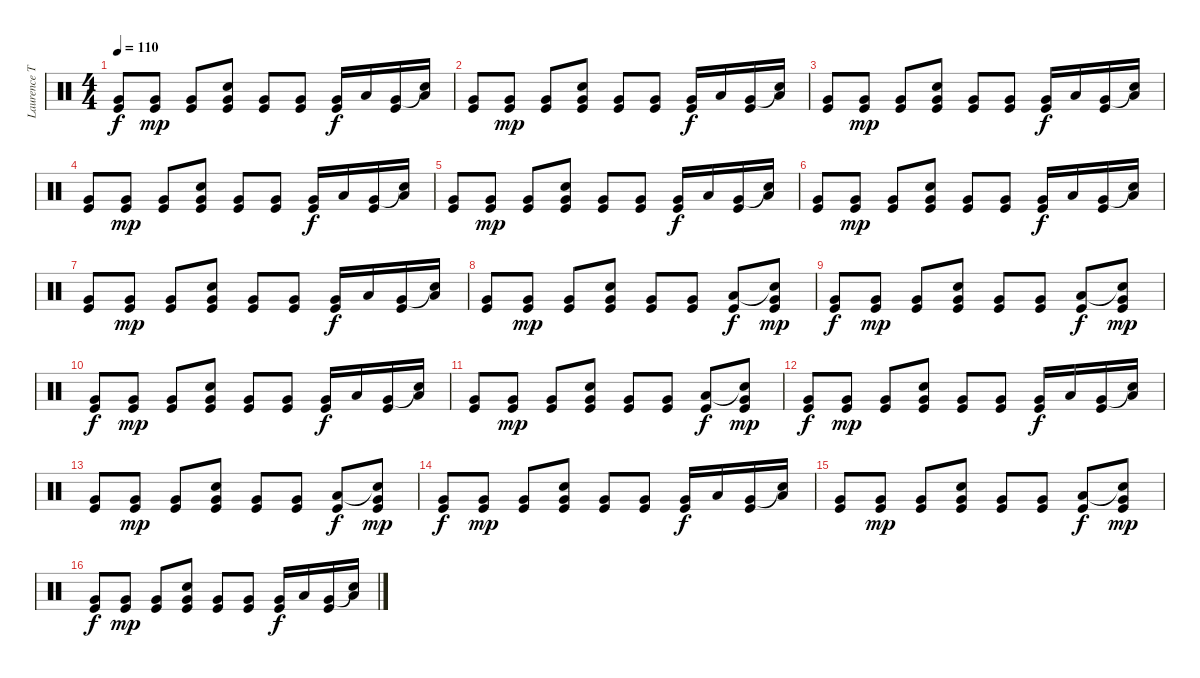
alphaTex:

\track ("Laurence Tolhurst (drums)" "Laurence T") {instrument percussion}
\staff {score}
\articulation defaults
\ts (4 4)
\tempo 110
\clef neutral
\ks c
("Very Low Tom (hit)" "Kick (hit)").8{dy f} ("Very Low Tom (hit)" "Kick (hit)").8{dy mp} ("Very Low Tom (hit)" "Kick (hit)").8 ("Snare (hit) 2" "Very Low Tom (hit)" "Kick (hit)").8 ("Very Low Tom (hit)" "Kick (hit)").8 ("Very Low Tom (hit)" "Kick (hit)").8 ("Very Low Tom (hit)" "Kick (hit)").16{dy f} "Low Tom (hit)".16 ("Very Low Tom (hit)" "Kick (hit)").16 ("Snare (hit)"{t} "Low Tom (hit)").16 |
("Very Low Tom (hit)" "Kick (hit)").8 ("Very Low Tom (hit)" "Kick (hit)").8{dy mp} ("Very Low Tom (hit)" "Kick (hit)").8 ("Snare (hit) 2" "Very Low Tom (hit)" "Kick (hit)").8 ("Very Low Tom (hit)" "Kick (hit)").8 ("Very Low Tom (hit)" "Kick (hit)").8 ("Very Low Tom (hit)" "Kick (hit)").16{dy f} "Low Tom (hit)".16 ("Very Low Tom (hit)" "Kick (hit)").16 ("Snare (hit)"{t} "Low Tom (hit)").16 |
("Very Low Tom (hit)" "Kick (hit)").8 ("Very Low Tom (hit)" "Kick (hit)").8{dy mp} ("Very Low Tom (hit)" "Kick (hit)").8 ("Snare (hit) 2" "Very Low Tom (hit)" "Kick (hit)").8 ("Very Low Tom (hit)" "Kick (hit)").8 ("Very Low Tom (hit)" "Kick (hit)").8 ("Very Low Tom (hit)" "Kick (hit)").16{dy f} "Low Tom (hit)".16 ("Very Low Tom (hit)" "Kick (hit)").16 ("Snare (hit)"{t} "Low Tom (hit)").16 |
("Very Low Tom (hit)" "Kick (hit)").8 ("Very Low Tom (hit)" "Kick (hit)").8{dy mp} ("Very Low Tom (hit)" "Kick (hit)").8 ("Snare (hit) 2" "Very Low Tom (hit)" "Kick (hit)").8 ("Very Low Tom (hit)" "Kick (hit)").8 ("Very Low Tom (hit)" "Kick (hit)").8 ("Very Low Tom (hit)" "Kick (hit)").16{dy f} "Low Tom (hit)".16 ("Very Low Tom (hit)" "Kick (hit)").16 ("Snare (hit)"{t} "Low Tom (hit)").16 |
("Very Low Tom (hit)" "Kick (hit)").8 ("Very Low Tom (hit)" "Kick (hit)").8{dy mp} ("Very Low Tom (hit)" "Kick (hit)").8 ("Snare (hit) 2" "Very Low Tom (hit)" "Kick (hit)").8 ("Very Low Tom (hit)" "Kick (hit)").8 ("Very Low Tom (hit)" "Kick (hit)").8 ("Very Low Tom (hit)" "Kick (hit)").16{dy f} "Low Tom (hit)".16 ("Very Low Tom (hit)" "Kick (hit)").16 ("Snare (hit)"{t} "Low Tom (hit)").16 |
("Very Low Tom (hit)" "Kick (hit)").8 ("Very Low Tom (hit)" "Kick (hit)").8{dy mp} ("Very Low Tom (hit)" "Kick (hit)").8 ("Snare (hit) 2" "Very Low Tom (hit)" "Kick (hit)").8 ("Very Low Tom (hit)" "Kick (hit)").8 ("Very Low Tom (hit)" "Kick (hit)").8 ("Very Low Tom (hit)" "Kick (hit)").16{dy f} "Low Tom (hit)".16 ("Very Low Tom (hit)" "Kick (hit)").16 ("Snare (hit)"{t} "Low Tom (hit)").16 |
("Very Low Tom (hit)" "Kick (hit)").8 ("Very Low Tom (hit)" "Kick (hit)").8{dy mp} ("Very Low Tom (hit)" "Kick (hit)").8 ("Snare (hit) 2" "Very Low Tom (hit)" "Kick (hit)").8 ("Very Low Tom (hit)" "Kick (hit)").8 ("Very Low Tom (hit)" "Kick (hit)").8 ("Very Low Tom (hit)" "Kick (hit)").16{dy f} "Low Tom (hit)".16 ("Very Low Tom (hit)" "Kick (hit)").16 ("Snare (hit)"{t} "Low Tom (hit)").16 |
("Very Low Tom (hit)" "Kick (hit)").8 ("Very Low Tom (hit)" "Kick (hit)").8{dy mp} ("Very Low Tom (hit)" "Kick (hit)").8 ("Snare (hit) 2" "Very Low Tom (hit)" "Kick (hit)").8 ("Very Low Tom (hit)" "Kick (hit)").8 ("Very Low Tom (hit)" "Kick (hit)").8 ("Low Tom (hit)" "Kick (hit)").8{dy f} ("Snare (hit)"{t} "Very Low Tom (hit)" "Kick (hit)").8{dy mp} |
("Very Low Tom (hit)" "Kick (hit)").8{dy f} ("Very Low Tom (hit)" "Kick (hit)").8{dy mp} ("Very Low Tom (hit)" "Kick (hit)").8 ("Snare (hit) 2" "Very Low Tom (hit)" "Kick (hit)").8 ("Very Low Tom (hit)" "Kick (hit)").8 ("Very Low Tom (hit)" "Kick (hit)").8 ("Low Tom (hit)" "Kick (hit)").8{dy f} ("Snare (hit)"{t} "Very Low Tom (hit)" "Kick (hit)").8{dy mp} |
("Very Low Tom (hit)" "Kick (hit)").8{dy f} ("Very Low Tom (hit)" "Kick (hit)").8{dy mp} ("Very Low Tom (hit)" "Kick (hit)").8 ("Snare (hit) 2" "Very Low Tom (hit)" "Kick (hit)").8 ("Very Low Tom (hit)" "Kick (hit)").8 ("Very Low Tom (hit)" "Kick (hit)").8 ("Very Low Tom (hit)" "Kick (hit)").16{dy f} "Low Tom (hit)".16 ("Very Low Tom (hit)" "Kick (hit)").16 ("Snare (hit)"{t} "Low Tom (hit)").16 |
("Very Low Tom (hit)" "Kick (hit)").8 ("Very Low Tom (hit)" "Kick (hit)").8{dy mp} ("Very Low Tom (hit)" "Kick (hit)").8 ("Snare (hit) 2" "Very Low Tom (hit)" "Kick (hit)").8 ("Very Low Tom (hit)" "Kick (hit)").8 ("Very Low Tom (hit)" "Kick (hit)").8 ("Low Tom (hit)" "Kick (hit)").8{dy f} ("Snare (hit)"{t} "Very Low Tom (hit)" "Kick (hit)").8{dy mp} |
("Very Low Tom (hit)" "Kick (hit)").8{dy f} ("Very Low Tom (hit)" "Kick (hit)").8{dy mp} ("Very Low Tom (hit)" "Kick (hit)").8 ("Snare (hit) 2" "Very Low Tom (hit)" "Kick (hit)").8 ("Very Low Tom (hit)" "Kick (hit)").8 ("Very Low Tom (hit)" "Kick (hit)").8 ("Very Low Tom (hit)" "Kick (hit)").16{dy f} "Low Tom (hit)".16 ("Very Low Tom (hit)" "Kick (hit)").16 ("Snare (hit)"{t} "Low Tom (hit)").16 |
("Very Low Tom (hit)" "Kick (hit)").8 ("Very Low Tom (hit)" "Kick (hit)").8{dy mp} ("Very Low Tom (hit)" "Kick (hit)").8 ("Snare (hit) 2" "Very Low Tom (hit)" "Kick (hit)").8 ("Very Low Tom (hit)" "Kick (hit)").8 ("Very Low Tom (hit)" "Kick (hit)").8 ("Low Tom (hit)" "Kick (hit)").8{dy f} ("Snare (hit)"{t} "Very Low Tom (hit)" "Kick (hit)").8{dy mp} |
("Very Low Tom (hit)" "Kick (hit)").8{dy f} ("Very Low Tom (hit)" "Kick (hit)").8{dy mp} ("Very Low Tom (hit)" "Kick (hit)").8 ("Snare (hit) 2" "Very Low Tom (hit)" "Kick (hit)").8 ("Very Low Tom (hit)" "Kick (hit)").8 ("Very Low Tom (hit)" "Kick (hit)").8 ("Very Low Tom (hit)" "Kick (hit)").16{dy f} "Low Tom (hit)".16 ("Very Low Tom (hit)" "Kick (hit)").16 ("Snare (hit)"{t} "Low Tom (hit)").16 |
("Very Low Tom (hit)" "Kick (hit)").8 ("Very Low Tom (hit)" "Kick (hit)").8{dy mp} ("Very Low Tom (hit)" "Kick (hit)").8 ("Snare (hit) 2" "Very Low Tom (hit)" "Kick (hit)").8 ("Very Low Tom (hit)" "Kick (hit)").8 ("Very Low Tom (hit)" "Kick (hit)").8 ("Low Tom (hit)" "Kick (hit)").8{dy f} ("Snare (hit)"{t} "Very Low Tom (hit)" "Kick (hit)").8{dy mp} |
("Very Low Tom (hit)" "Kick (hit)").8{dy f} ("Very Low Tom (hit)" "Kick (hit)").8{dy mp} ("Very Low Tom (hit)" "Kick (hit)").8 ("Snare (hit) 2" "Very Low Tom (hit)" "Kick (hit)").8 ("Very Low Tom (hit)" "Kick (hit)").8 ("Very Low Tom (hit)" "Kick (hit)").8 ("Very Low Tom (hit)" "Kick (hit)").16{dy f} "Low Tom (hit)".16 ("Very Low Tom (hit)" "Kick (hit)").16 ("Snare (hit)"{t} "Low Tom (hit)").16
